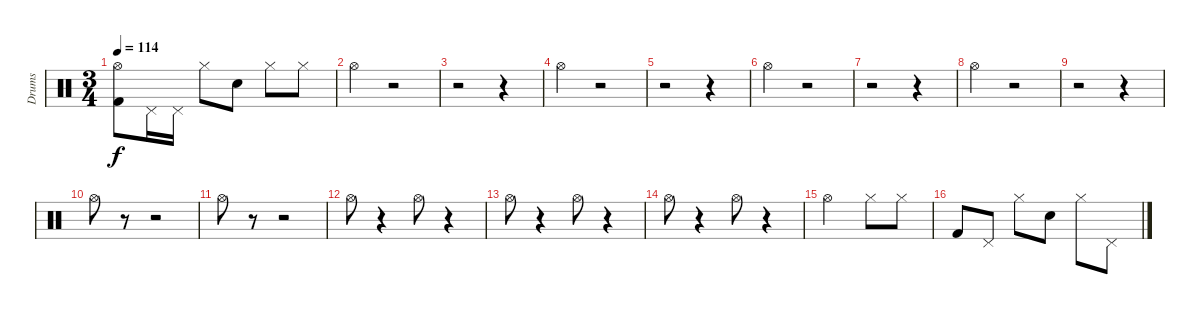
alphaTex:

\track ("Drums" "Drums") {instrument percussion}
\staff {score}
\articulation defaults
\ts (3 4)
\tempo 114
\clef neutral
\ks c
("Hi-Hat (open)" "Kick (hit) 2").8{dy f} "Pedal Hi-Hat (hit)".16 "Pedal Hi-Hat (hit)".16 "Hi-Hat (closed)".8 "Electric Snare (hit)".8 "Hi-Hat (closed)".8 "Hi-Hat (closed)".8 |
"Hi-Hat (open)".4 r.2 |
r.2 r.4 |
"Hi-Hat (open)".4 r.2 |
r.2 r.4 |
"Hi-Hat (open)".4 r.2 |
r.2 r.4 |
"Hi-Hat (open)".4 r.2 |
r.2 r.4 |
"Hi-Hat (open)".8 r.8 r.2 |
"Hi-Hat (open)".8 r.8 r.2 |
"Hi-Hat (open)".8 r.4 "Hi-Hat (open)".8 r.4 |
"Hi-Hat (open)".8 r.4 "Hi-Hat (open)".8 r.4 |
"Hi-Hat (open)".8 r.4 "Hi-Hat (open)".8 r.4 |
"Hi-Hat (open)".2 "Hi-Hat (closed)".8 "Hi-Hat (closed)".8 |
"Kick (hit) 2".8 "Pedal Hi-Hat (hit)".8 "Hi-Hat (closed)".8 "Electric Snare (hit)".8 "Hi-Hat (closed)".8 "Pedal Hi-Hat (hit)".8
